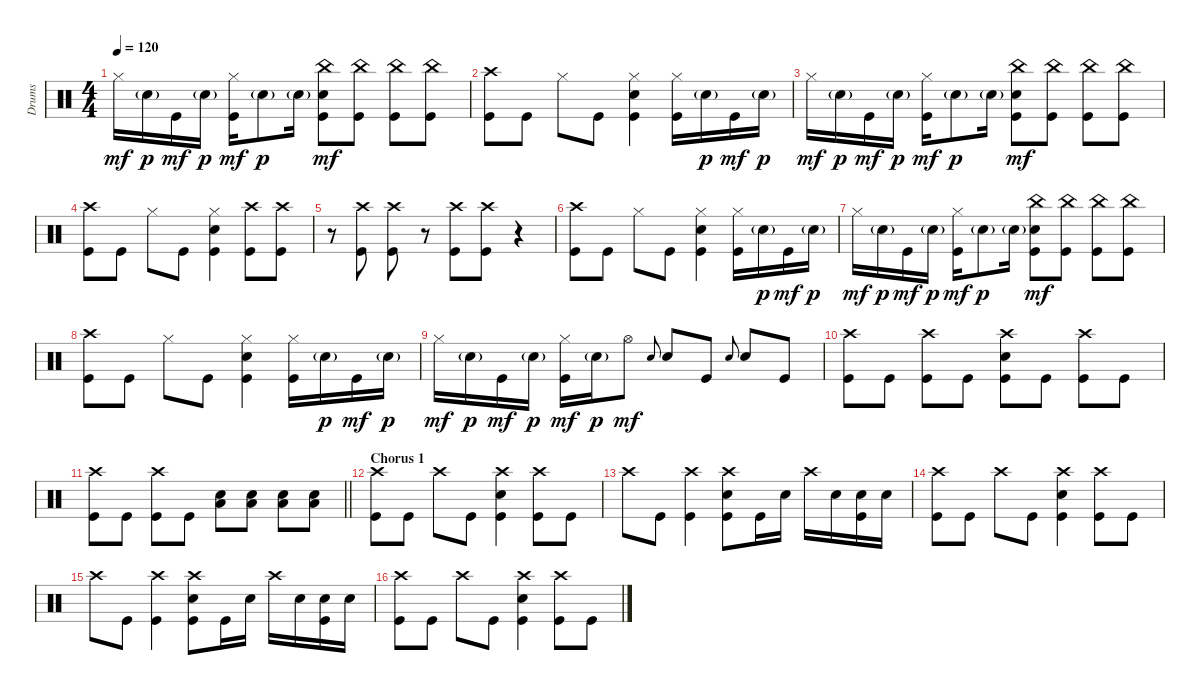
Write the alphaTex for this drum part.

\track ("Drums" "Drums") {instrument percussion}
\staff {score}
\articulation defaults
\ts (4 4)
\tempo 120
\clef neutral
\ks c "Hi-Hat (closed)".16{dy mf} "Snare (hit) 2"{g}.16{dy p} "Kick (hit)".16{dy mf} "Snare (hit) 2"{g}.16{dy p}
("Kick (hit)" "Hi-Hat (closed)").16{dy mf} "Snare (hit) 2"{g}.8{dy p} "Snare (hit) 2"{g}.16 ("Snare (hit) 2" "China (hit)" "Kick (hit)").8{dy mf} ("China (hit)" "Kick (hit)").8 ("China (hit)" "Kick (hit)").8 ("China (hit)" "Kick (hit)").8 |
("Kick (hit)" "Crash high (hit)").8 "Kick (hit)".8 "Hi-Hat (closed)".8 "Kick (hit)".8 ("Kick (hit)" "Snare (hit) 2" "Hi-Hat (closed)").4 ("Kick (hit)" "Hi-Hat (closed)").16 "Snare (hit) 2"{g}.16{dy p} "Kick (hit)".16{dy mf} "Snare (hit) 2"{g}.16{dy p} |
"Hi-Hat (closed)".16{dy mf} "Snare (hit) 2"{g}.16{dy p} "Kick (hit)".16{dy mf} "Snare (hit) 2"{g}.16{dy p} ("Kick (hit)" "Hi-Hat (closed)").16{dy mf} "Snare (hit) 2"{g}.8{dy p} "Snare (hit) 2"{g}.16 ("Snare (hit) 2" "China (hit)" "Kick (hit)").8{dy mf} ("China (hit)" "Kick (hit)").8 ("China (hit)" "Kick (hit)").8 ("China (hit)" "Kick (hit)").8 |
("Kick (hit)" "Crash high (hit)").8 "Kick (hit)".8 "Hi-Hat (closed)".8 "Kick (hit)".8 ("Kick (hit)" "Snare (hit) 2" "Hi-Hat (closed)").4 ("Kick (hit)" "Crash high (hit)").8 ("Crash high (hit)" "Kick (hit)").8 |
r.8 ("Kick (hit)" "Crash high (hit)").8 ("Crash high (hit)" "Kick (hit)").8 r.8 ("Crash high (hit)" "Kick (hit)").8 ("Kick (hit)" "Crash high (hit)").8 r.4 |
("Kick (hit)" "Crash high (hit)").8 "Kick (hit)".8 "Hi-Hat (closed)".8 "Kick (hit)".8 ("Kick (hit)" "Snare (hit) 2" "Hi-Hat (closed)").4 ("Kick (hit)" "Hi-Hat (closed)").16 "Snare (hit) 2"{g}.16{dy p} "Kick (hit)".16{dy mf} "Snare (hit) 2"{g}.16{dy p} |
"Hi-Hat (closed)".16{dy mf} "Snare (hit) 2"{g}.16{dy p} "Kick (hit)".16{dy mf} "Snare (hit) 2"{g}.16{dy p} ("Kick (hit)" "Hi-Hat (closed)").16{dy mf} "Snare (hit) 2"{g}.8{dy p} "Snare (hit) 2"{g}.16 ("Snare (hit) 2" "China (hit)" "Kick (hit)").8{dy mf} ("China (hit)" "Kick (hit)").8 ("China (hit)" "Kick (hit)").8 ("China (hit)" "Kick (hit)").8 |
("Crash high (hit)" "Kick (hit)").8 "Kick (hit)".8 "Hi-Hat (closed)".8 "Kick (hit)".8 ("Snare (hit) 2" "Hi-Hat (closed)" "Kick (hit)").4 ("Hi-Hat (closed)" "Kick (hit)").16 "Snare (hit) 2"{g}.16{dy p} "Kick (hit)".16{dy mf} "Snare (hit) 2"{g}.16{dy p} |
"Hi-Hat (closed)".16{dy mf} "Snare (hit) 2"{g}.16{dy p} "Kick (hit)".16{dy mf} "Snare (hit) 2"{g}.16{dy p} ("Hi-Hat (closed)" "Kick (hit)").16{dy mf} "Snare (hit) 2"{g}.16{dy p} "Hi-Hat (open)".8{dy mf} "Snare (hit) 2".8{gr onbeat} "Snare (hit) 2".8{volume 13} "Kick (hit)".8 "Snare (hit) 2".8{gr onbeat} "Snare (hit) 2".8 "Kick (hit)".8 |
("Crash high (hit)" "Kick (hit)").8 "Kick (hit)".8 ("Crash high (hit)" "Kick (hit)").8 "Kick (hit)".8 ("Snare (hit) 2" "Crash high (hit)" "Kick (hit)").8 "Kick (hit)".8 ("Crash high (hit)" "Kick (hit)").8 "Kick (hit)".8 |
\barLineRight lightlight
("Crash high (hit)" "Kick (hit)").8 "Kick (hit)".8 ("Crash high (hit)" "Kick (hit)").8 "Kick (hit)".8 ("Snare (hit) 2" "Low Floor Tom (hit)").8 ("Snare (hit) 2" "Low Floor Tom (hit)").8 ("Snare (hit) 2" "Low Floor Tom (hit)").8 ("Snare (hit) 2" "Low Floor Tom (hit)").8 |
\section ("" "Chorus 1")
("Kick (hit)" "Crash high (hit)").8 "Kick (hit)".8 "Crash high (hit)".8 "Kick (hit)".8 ("Kick (hit)" "Snare (hit) 2" "Crash high (hit)").4 ("Kick (hit)" "Crash high (hit)").8 "Kick (hit)".8 |
"Crash high (hit)".8 "Kick (hit)".8 ("Kick (hit)" "Crash high (hit)").4 ("Kick (hit)" "Snare (hit) 2" "Crash high (hit)").8 "Kick (hit)".16 "Snare (hit) 2".16 "Crash high (hit)".16 "Snare (hit) 2".16 ("Snare (hit) 2" "Kick (hit)").16 "Snare (hit) 2".16 |
("Crash high (hit)" "Kick (hit)").8 "Kick (hit)".8 "Crash high (hit)".8 "Kick (hit)".8 ("Snare (hit) 2" "Crash high (hit)" "Kick (hit)").4 ("Crash high (hit)" "Kick (hit)").8 "Kick (hit)".8 |
"Crash high (hit)".8 "Kick (hit)".8 ("Kick (hit)" "Crash high (hit)").4 ("Kick (hit)" "Snare (hit) 2" "Crash high (hit)").8 "Kick (hit)".16 "Snare (hit) 2".16 "Crash high (hit)".16 "Snare (hit) 2".16 ("Kick (hit)" "Snare (hit) 2").16 "Snare (hit) 2".16 |
("Crash high (hit)" "Kick (hit)").8 "Kick (hit)".8 "Crash high (hit)".8 "Kick (hit)".8 ("Snare (hit) 2" "Crash high (hit)" "Kick (hit)").4 ("Crash high (hit)" "Kick (hit)").8 "Kick (hit)".8
